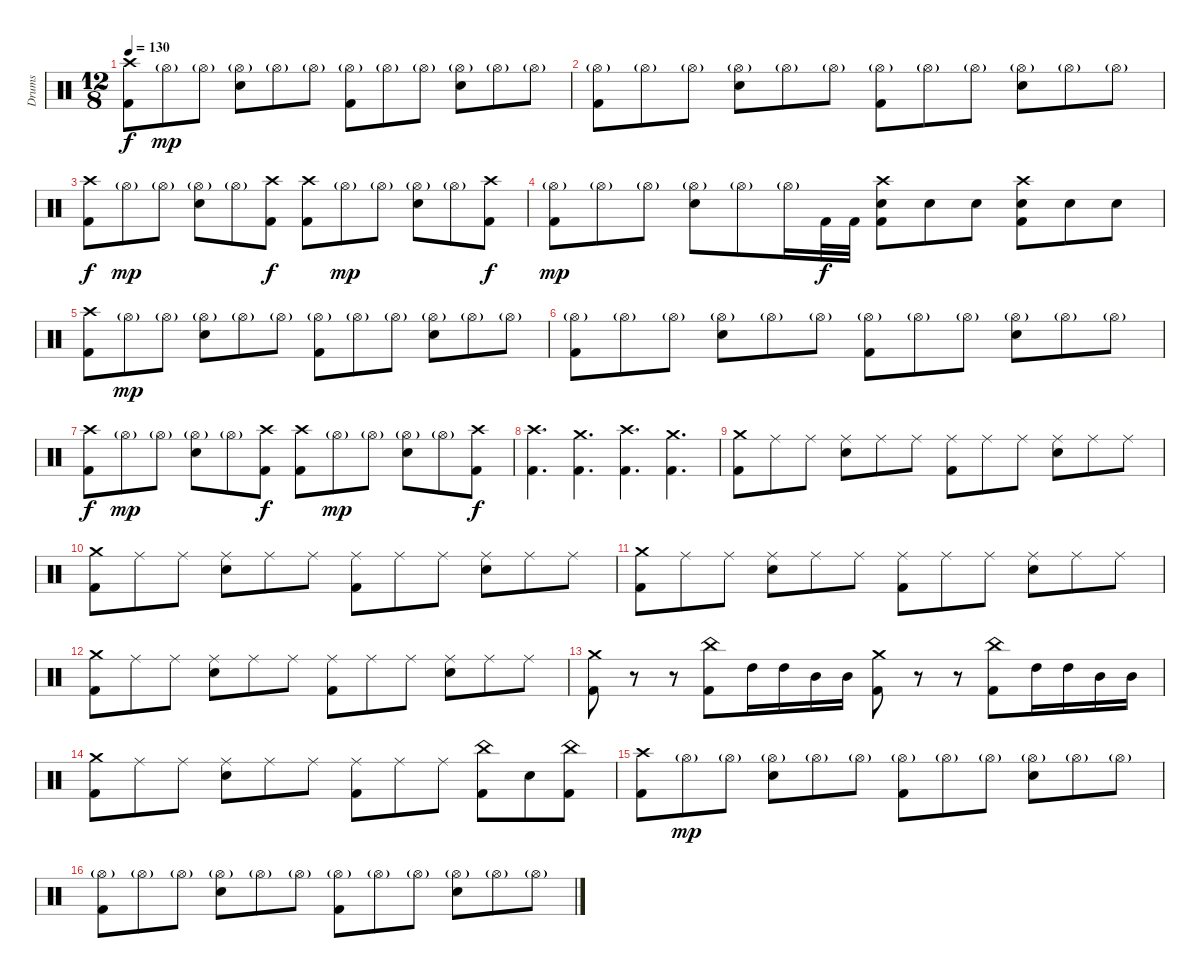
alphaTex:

\track ("Drums" "Drums") {instrument percussion}
\staff {score}
\articulation defaults
\ts (12 8)
\tempo 130
\clef neutral
\ks c
("Crash high (hit)" "Kick (hit) 2").8{dy f} "Hi-Hat (open)"{g}.8{dy mp} "Hi-Hat (open)"{g}.8 ("Hi-Hat (open)"{g} "Electric Snare (hit)").8 "Hi-Hat (open)"{g}.8 "Hi-Hat (open)"{g}.8 ("Hi-Hat (open)"{g} "Kick (hit) 2").8 "Hi-Hat (open)"{g}.8 "Hi-Hat (open)"{g}.8 ("Hi-Hat (open)"{g} "Electric Snare (hit)").8 "Hi-Hat (open)"{g}.8 "Hi-Hat (open)"{g}.8 |
("Hi-Hat (open)"{g} "Kick (hit) 2").8 "Hi-Hat (open)"{g}.8 "Hi-Hat (open)"{g}.8 ("Hi-Hat (open)"{g} "Electric Snare (hit)").8 "Hi-Hat (open)"{g}.8 "Hi-Hat (open)"{g}.8 ("Hi-Hat (open)"{g} "Kick (hit) 2").8 "Hi-Hat (open)"{g}.8 "Hi-Hat (open)"{g}.8 ("Hi-Hat (open)"{g} "Electric Snare (hit)").8 "Hi-Hat (open)"{g}.8 "Hi-Hat (open)"{g}.8 |
("Crash high (hit)" "Kick (hit) 2").8{dy f} "Hi-Hat (open)"{g}.8{dy mp} "Hi-Hat (open)"{g}.8 ("Hi-Hat (open)"{g} "Electric Snare (hit)").8 "Hi-Hat (open)"{g}.8 ("Crash high (hit)" "Kick (hit) 2").8{dy f} ("Crash high (hit)" "Kick (hit) 2").8 "Hi-Hat (open)"{g}.8{dy mp} "Hi-Hat (open)"{g}.8 ("Hi-Hat (open)"{g} "Electric Snare (hit)").8 "Hi-Hat (open)"{g}.8 ("Crash high (hit)" "Kick (hit) 2").8{dy f} |
("Hi-Hat (open)"{g} "Kick (hit) 2").8{dy mp} "Hi-Hat (open)"{g}.8 "Hi-Hat (open)"{g}.8 ("Hi-Hat (open)"{g} "Electric Snare (hit)").8 "Hi-Hat (open)"{g}.8 "Hi-Hat (open)"{g}.16 "Kick (hit) 2".32{dy f} "Kick (hit) 2".32 ("Crash high (hit)" "Electric Snare (hit)" "Kick (hit) 2").8 "Electric Snare (hit)".8 "Electric Snare (hit)".8 ("Crash high (hit)" "Electric Snare (hit)" "Kick (hit) 2").8 "Electric Snare (hit)".8 "Electric Snare (hit)".8 |
("Crash high (hit)" "Kick (hit) 2").8 "Hi-Hat (open)"{g}.8{dy mp} "Hi-Hat (open)"{g}.8 ("Hi-Hat (open)"{g} "Electric Snare (hit)").8 "Hi-Hat (open)"{g}.8 "Hi-Hat (open)"{g}.8 ("Hi-Hat (open)"{g} "Kick (hit) 2").8 "Hi-Hat (open)"{g}.8 "Hi-Hat (open)"{g}.8 ("Hi-Hat (open)"{g} "Electric Snare (hit)").8 "Hi-Hat (open)"{g}.8 "Hi-Hat (open)"{g}.8 |
("Hi-Hat (open)"{g} "Kick (hit) 2").8 "Hi-Hat (open)"{g}.8 "Hi-Hat (open)"{g}.8 ("Hi-Hat (open)"{g} "Electric Snare (hit)").8 "Hi-Hat (open)"{g}.8 "Hi-Hat (open)"{g}.8 ("Hi-Hat (open)"{g} "Kick (hit) 2").8 "Hi-Hat (open)"{g}.8 "Hi-Hat (open)"{g}.8 ("Hi-Hat (open)"{g} "Electric Snare (hit)").8 "Hi-Hat (open)"{g}.8 "Hi-Hat (open)"{g}.8 |
("Crash high (hit)" "Kick (hit) 2").8{dy f} "Hi-Hat (open)"{g}.8{dy mp} "Hi-Hat (open)"{g}.8 ("Hi-Hat (open)"{g} "Electric Snare (hit)").8 "Hi-Hat (open)"{g}.8 ("Crash high (hit)" "Kick (hit) 2").8{dy f} ("Crash high (hit)" "Kick (hit) 2").8 "Hi-Hat (open)"{g}.8{dy mp} "Hi-Hat (open)"{g}.8 ("Hi-Hat (open)"{g} "Electric Snare (hit)").8 "Hi-Hat (open)"{g}.8 ("Crash high (hit)" "Kick (hit) 2").8{dy f} |
("Crash high (hit)" "Kick (hit) 2").4{d} ("Crash medium (hit)" "Kick (hit) 2").4{d} ("Crash high (hit)" "Kick (hit) 2").4{d} ("Crash medium (hit)" "Kick (hit) 2").4{d} |
("Crash medium (hit)" "Kick (hit) 2").8 "Ride (middle)".8 "Ride (middle)".8 ("Ride (middle)" "Electric Snare (hit)").8 "Ride (middle)".8 "Ride (middle)".8 ("Ride (middle)" "Kick (hit) 2").8 "Ride (middle)".8 "Ride (middle)".8 ("Ride (middle)" "Electric Snare (hit)").8 "Ride (middle)".8 "Ride (middle)".8 |
("Crash medium (hit)" "Kick (hit) 2").8 "Ride (middle)".8 "Ride (middle)".8 ("Ride (middle)" "Electric Snare (hit)").8 "Ride (middle)".8 "Ride (middle)".8 ("Ride (middle)" "Kick (hit) 2").8 "Ride (middle)".8 "Ride (middle)".8 ("Ride (middle)" "Electric Snare (hit)").8 "Ride (middle)".8 "Ride (middle)".8 |
("Crash medium (hit)" "Kick (hit) 2").8 "Ride (middle)".8 "Ride (middle)".8 ("Ride (middle)" "Electric Snare (hit)").8 "Ride (middle)".8 "Ride (middle)".8 ("Ride (middle)" "Kick (hit) 2").8 "Ride (middle)".8 "Ride (middle)".8 ("Ride (middle)" "Electric Snare (hit)").8 "Ride (middle)".8 "Ride (middle)".8 |
("Crash medium (hit)" "Kick (hit) 2").8 "Ride (middle)".8 "Ride (middle)".8 ("Ride (middle)" "Electric Snare (hit)").8 "Ride (middle)".8 "Ride (middle)".8 ("Ride (middle)" "Kick (hit) 2").8 "Ride (middle)".8 "Ride (middle)".8 ("Ride (middle)" "Electric Snare (hit)").8 "Ride (middle)".8 "Ride (middle)".8 |
("Crash medium (hit)" "Kick (hit) 2").8 r.8 r.8 ("China (hit)" "Kick (hit) 2").8 "High Tom (hit)".16 "High Tom (hit)".16 "Mid Tom (hit)".16 "Mid Tom (hit)".16 ("Crash medium (hit)" "Kick (hit) 2").8 r.8 r.8 ("China (hit)" "Kick (hit) 2").8 "High Tom (hit)".16 "High Tom (hit)".16 "Mid Tom (hit)".16 "Mid Tom (hit)".16 |
("Crash medium (hit)" "Kick (hit) 2").8 "Ride (middle)".8 "Ride (middle)".8 ("Ride (middle)" "Electric Snare (hit)").8 "Ride (middle)".8 "Ride (middle)".8 ("Ride (middle)" "Kick (hit) 2").8 "Ride (middle)".8 "Ride (middle)".8 ("China (hit)" "Kick (hit) 2").8 "Electric Snare (hit)".8 ("China (hit)" "Kick (hit) 2").8 |
("Crash high (hit)" "Kick (hit) 2").8 "Hi-Hat (open)"{g}.8{dy mp} "Hi-Hat (open)"{g}.8 ("Hi-Hat (open)"{g} "Electric Snare (hit)").8 "Hi-Hat (open)"{g}.8 "Hi-Hat (open)"{g}.8 ("Hi-Hat (open)"{g} "Kick (hit) 2").8 "Hi-Hat (open)"{g}.8 "Hi-Hat (open)"{g}.8 ("Hi-Hat (open)"{g} "Electric Snare (hit)").8 "Hi-Hat (open)"{g}.8 "Hi-Hat (open)"{g}.8 |
("Hi-Hat (open)"{g} "Kick (hit) 2").8 "Hi-Hat (open)"{g}.8 "Hi-Hat (open)"{g}.8 ("Hi-Hat (open)"{g} "Electric Snare (hit)").8 "Hi-Hat (open)"{g}.8 "Hi-Hat (open)"{g}.8 ("Hi-Hat (open)"{g} "Kick (hit) 2").8 "Hi-Hat (open)"{g}.8 "Hi-Hat (open)"{g}.8 ("Hi-Hat (open)"{g} "Electric Snare (hit)").8 "Hi-Hat (open)"{g}.8 "Hi-Hat (open)"{g}.8
